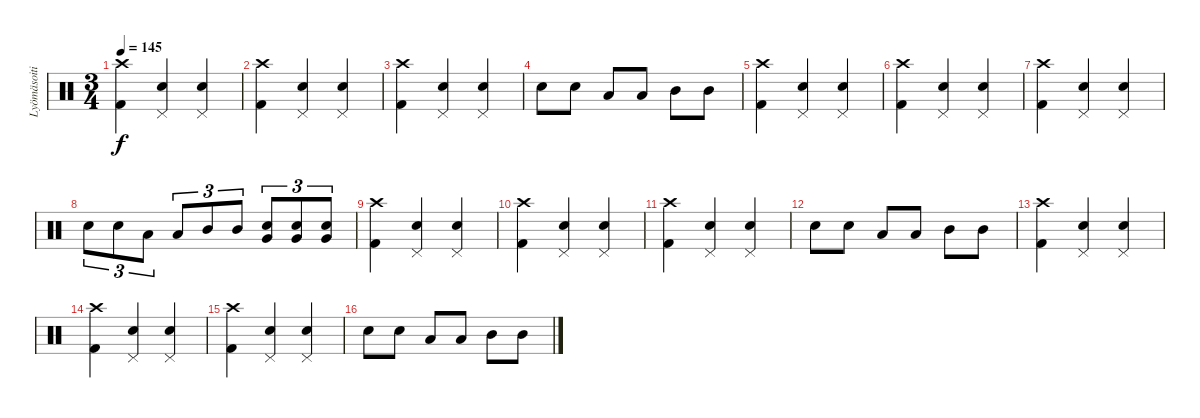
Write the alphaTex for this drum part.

\track ("Lyömäsoitin" "Lyömäsoiti") {instrument percussion}
\staff {score}
\articulation defaults
\ts (3 4)
\tempo 145
\clef neutral
\ks c
("Crash high (hit)" "Kick (hit) 2").4{dy f} ("Pedal Hi-Hat (hit)" "Snare (hit) 2").4 ("Pedal Hi-Hat (hit)" "Snare (hit) 2").4 |
("Crash high (hit)" "Kick (hit) 2").4 ("Pedal Hi-Hat (hit)" "Snare (hit) 2").4 ("Pedal Hi-Hat (hit)" "Snare (hit) 2").4 |
("Crash high (hit)" "Kick (hit) 2").4 ("Pedal Hi-Hat (hit)" "Snare (hit) 2").4 ("Pedal Hi-Hat (hit)" "Snare (hit) 2").4 |
"Snare (hit) 2".8 "Snare (hit) 2".8 "Low Tom (hit)".8 "Low Tom (hit)".8 "Mid Tom (hit)".8 "Mid Tom (hit)".8 |
("Crash high (hit)" "Kick (hit) 2").4 ("Pedal Hi-Hat (hit)" "Snare (hit) 2").4 ("Pedal Hi-Hat (hit)" "Snare (hit) 2").4 |
("Crash high (hit)" "Kick (hit) 2").4 ("Pedal Hi-Hat (hit)" "Snare (hit) 2").4 ("Pedal Hi-Hat (hit)" "Snare (hit) 2").4 |
("Crash high (hit)" "Kick (hit) 2").4 ("Pedal Hi-Hat (hit)" "Snare (hit) 2").4 ("Pedal Hi-Hat (hit)" "Snare (hit) 2").4 |
"Snare (hit) 2".8{tu (3 2)} "Snare (hit) 2".8{tu (3 2)} "Low Tom (hit)".8{tu (3 2)} "Low Tom (hit)".8{tu (3 2)} "Mid Tom (hit)".8{tu (3 2)} "Mid Tom (hit)".8{tu (3 2)} ("Very Low Tom (hit)" "Snare (hit) 2").8{tu (3 2)} ("Very Low Tom (hit)" "Snare (hit) 2").8{tu (3 2)} ("Very Low Tom (hit)" "Snare (hit) 2").8{tu (3 2)} |
("Crash high (hit)" "Kick (hit) 2").4 ("Pedal Hi-Hat (hit)" "Snare (hit) 2").4 ("Pedal Hi-Hat (hit)" "Snare (hit) 2").4 |
("Crash high (hit)" "Kick (hit) 2").4 ("Pedal Hi-Hat (hit)" "Snare (hit) 2").4 ("Pedal Hi-Hat (hit)" "Snare (hit) 2").4 |
("Crash high (hit)" "Kick (hit) 2").4 ("Pedal Hi-Hat (hit)" "Snare (hit) 2").4 ("Pedal Hi-Hat (hit)" "Snare (hit) 2").4 |
"Snare (hit) 2".8 "Snare (hit) 2".8 "Low Tom (hit)".8 "Low Tom (hit)".8 "Mid Tom (hit)".8 "Mid Tom (hit)".8 |
("Crash high (hit)" "Kick (hit) 2").4 ("Pedal Hi-Hat (hit)" "Snare (hit) 2").4 ("Pedal Hi-Hat (hit)" "Snare (hit) 2").4 |
("Crash high (hit)" "Kick (hit) 2").4 ("Pedal Hi-Hat (hit)" "Snare (hit) 2").4 ("Pedal Hi-Hat (hit)" "Snare (hit) 2").4 |
("Crash high (hit)" "Kick (hit) 2").4 ("Pedal Hi-Hat (hit)" "Snare (hit) 2").4 ("Pedal Hi-Hat (hit)" "Snare (hit) 2").4 |
"Snare (hit) 2".8 "Snare (hit) 2".8 "Low Tom (hit)".8 "Low Tom (hit)".8 "Mid Tom (hit)".8 "Mid Tom (hit)".8
